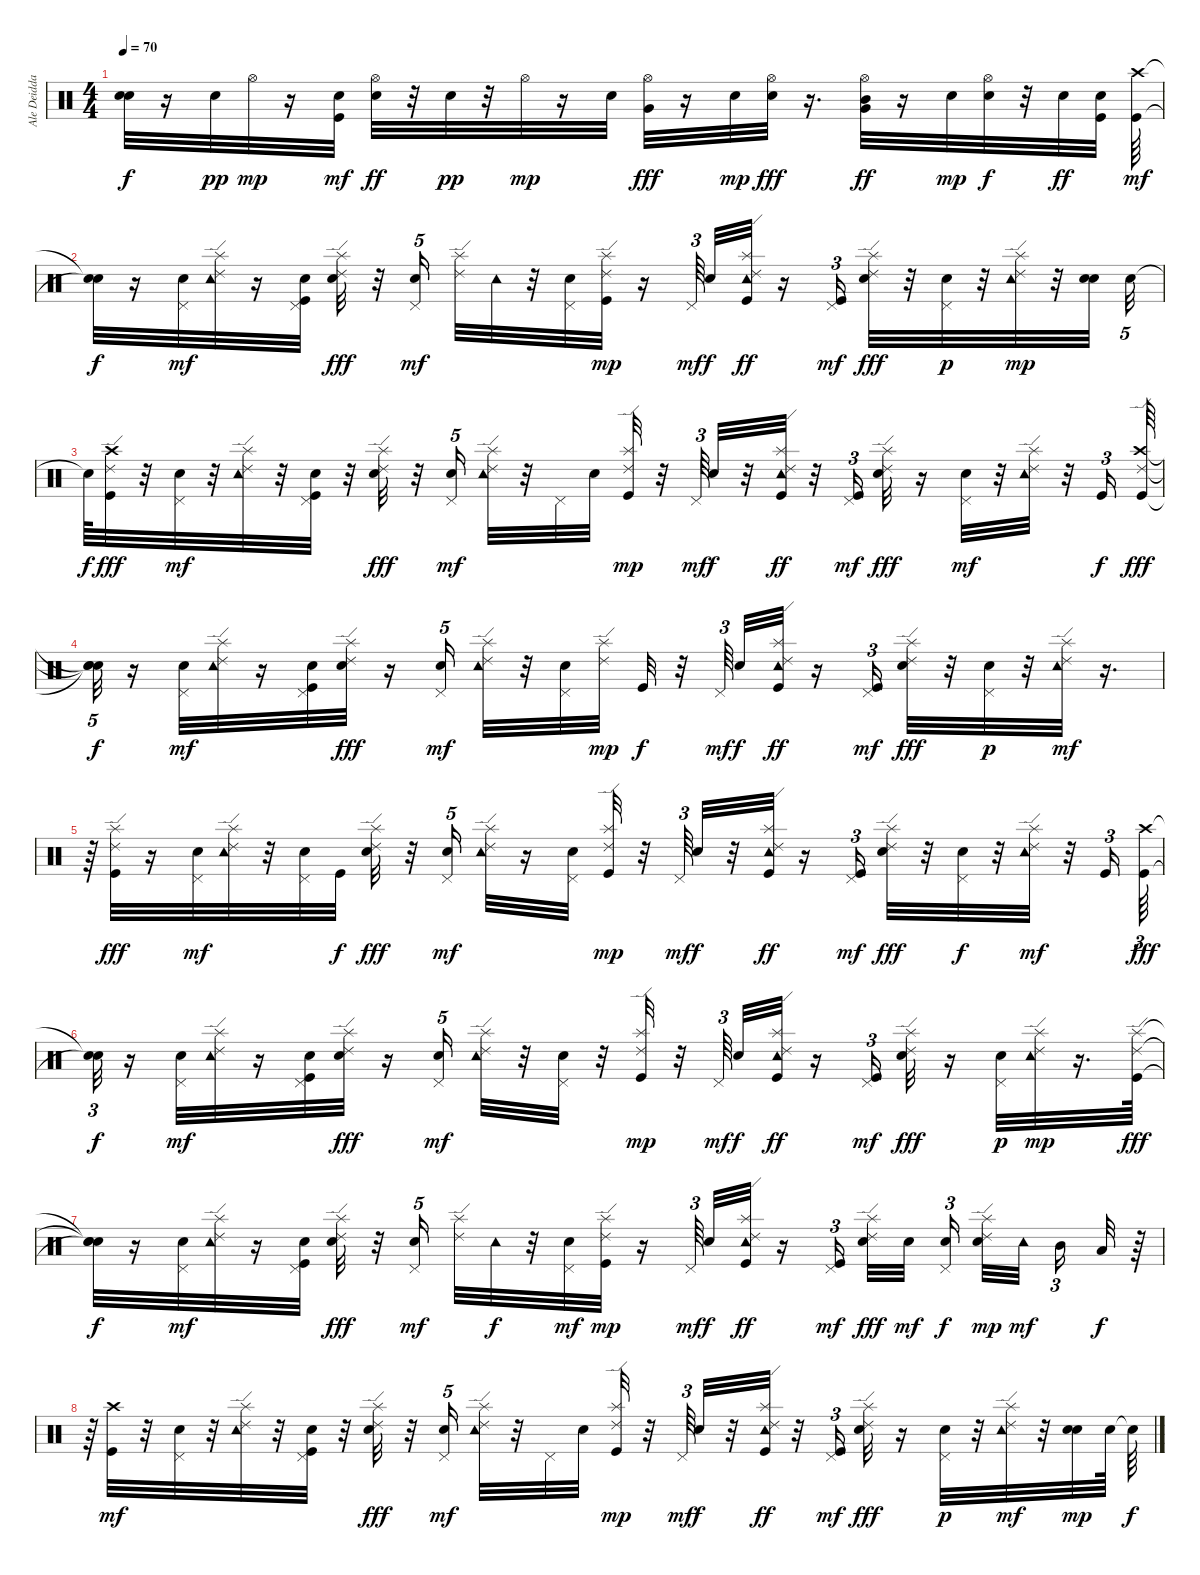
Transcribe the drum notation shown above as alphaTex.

\track ("Ale Deidda" "Ale Deidda") {instrument percussion}
\staff {score}
\articulation defaults
\ts (4 4)
\tempo 70
\clef neutral
\ks c
("Snare (hit)"{t} "Snare (hit)"{t}).32{dy f} r.16 "Snare (hit) 2".32{dy pp} "Hi-Hat (open)".32{dy mp} r.16 ("Snare (hit) 2" "Kick (hit)").32{dy mf} ("Electric Snare (hit)" "Hi-Hat (open)").32{dy ff} r.32 "Snare (hit) 2".32{dy pp} r.32 "Hi-Hat (open)".32{dy mp} r.16 "Snare (hit) 2".32 ("Hi-Hat (open)" "Very Low Tom (hit)").32{dy fff} r.16 "Electric Snare (hit)".32{dy mp} ("Hi-Hat (open)" "Electric Snare (hit)").32{dy fff} r.16{d} ("Mid Tom (hit)" "Very Low Tom (hit)" "Hi-Hat (open)").32{dy ff} r.16 "Electric Snare (hit)".32{dy mp} ("Hi-Hat (open)" "Electric Snare (hit)").32{dy f} r.32 "Electric Snare (hit)".32{dy ff} ("Electric Snare (hit)" "Kick (hit)").32 ("Kick (hit)" "Crash high (hit)").64{dy mf} |
("Snare (hit)"{t} "Snare (hit)"{t}).32{dy f} r.16 ("Snare (hit) 2" "Pedal Hi-Hat (hit)").32{dy mf} ("Splash (hit)" "Ride (edge) 2" "Tambourine (hit)").32 r.16 ("Snare (hit) 2" "Pedal Hi-Hat (hit)" "Kick (hit)").32 ("Splash (hit)" "Ride (edge) 2" "Electric Snare (hit)").32{dy fff} r.32 ("Snare (hit) 2" "Pedal Hi-Hat (hit)").16{tu (5 4) dy mf beam splitsecondary} ("Splash (hit)" "Ride (edge) 2").32 "Tambourine (hit)".32 r.32 ("Pedal Hi-Hat (hit)" "Snare (hit) 2").32 ("Splash (hit)" "Ride (edge) 2" "Kick (hit)").32{dy mp} r.16 "Pedal Hi-Hat (hit)".64{tu (3 2) dy mf beam splitsecondary} "Snare (hit) 2".32{dy f} ("Splash (hit)" "Ride (edge) 2" "Tambourine (hit)" "Kick (hit)").32{dy ff} r.16 ("Pedal Hi-Hat (hit)" "Kick (hit)").16{tu (3 2) dy mf} ("Electric Snare (hit)" "Splash (hit)" "Ride (edge) 2").32{dy fff} r.32 ("Snare (hit) 2" "Pedal Hi-Hat (hit)").32{dy p} r.32 ("Splash (hit)" "Ride (edge) 2" "Tambourine (hit)").32{dy mp} r.32 ("Electric Snare (hit)" "Electric Snare (hit)").32 "Electric Snare (hit)".32{tu (5 4)} |
"Snare (hit)"{t}.64{dy f} ("Kick (hit)" "Crash high (hit)" "Ride (edge) 2").32{dy fff} r.32 ("Snare (hit) 2" "Pedal Hi-Hat (hit)").32{dy mf} r.32 ("Splash (hit)" "Ride (edge) 2" "Tambourine (hit)").32 r.32 ("Snare (hit) 2" "Pedal Hi-Hat (hit)" "Kick (hit)").32 r.32 ("Splash (hit)" "Ride (edge) 2" "Electric Snare (hit)").32{dy fff} r.32 ("Snare (hit) 2" "Pedal Hi-Hat (hit)").16{tu (5 4) dy mf} ("Splash (hit)" "Ride (edge) 2" "Tambourine (hit)").32 r.32 "Pedal Hi-Hat (hit)".32 "Snare (hit) 2".32 ("Splash (hit)" "Ride (edge) 2" "Kick (hit)").32{dy mp} r.32 "Pedal Hi-Hat (hit)".64{tu (3 2) dy mf} "Snare (hit) 2".32{dy f} r.32 ("Splash (hit)" "Ride (edge) 2" "Tambourine (hit)" "Kick (hit)").32{dy ff} r.32 ("Pedal Hi-Hat (hit)" "Kick (hit)").16{tu (3 2) dy mf} ("Electric Snare (hit)" "Splash (hit)" "Ride (edge) 2").32{dy fff} r.16 ("Electric Snare (hit)" "Pedal Hi-Hat (hit)").32{dy mf} r.32 ("Splash (hit)" "Ride (edge) 2" "Tambourine (hit)").32 r.32 "Kick (hit)".16{tu (3 2) dy f} ("Kick (hit)" "Crash high (hit)" "Ride (edge) 2").64{dy fff} |
("Snare (hit)"{t} "Snare (hit)"{t} "Snare (hit)"{t}).32{tu (5 4) dy f} r.16 ("Snare (hit) 2" "Pedal Hi-Hat (hit)").32{dy mf} ("Splash (hit)" "Ride (edge) 2" "Tambourine (hit)").32 r.16 ("Snare (hit) 2" "Pedal Hi-Hat (hit)" "Kick (hit)").32 ("Splash (hit)" "Ride (edge) 2" "Electric Snare (hit)").32{dy fff} r.16 ("Snare (hit) 2" "Pedal Hi-Hat (hit)").16{tu (5 4) dy mf} ("Splash (hit)" "Ride (edge) 2" "Tambourine (hit)").32 r.32 ("Pedal Hi-Hat (hit)" "Snare (hit) 2").32 ("Splash (hit)" "Ride (edge) 2").32{dy mp} "Kick (hit)".32{dy f} r.32 "Pedal Hi-Hat (hit)".64{tu (3 2) dy mf beam splitsecondary} "Snare (hit) 2".32{dy f} ("Splash (hit)" "Ride (edge) 2" "Tambourine (hit)" "Kick (hit)").32{dy ff} r.16 ("Pedal Hi-Hat (hit)" "Kick (hit)").16{tu (3 2) dy mf} ("Electric Snare (hit)" "Splash (hit)" "Ride (edge) 2").32{dy fff} r.32 ("Snare (hit) 2" "Pedal Hi-Hat (hit)").32{dy p} r.32 ("Splash (hit)" "Ride (edge) 2" "Tambourine (hit)").32{dy mf} r.16{d} |
r.64 ("Kick (hit)" "Splash (hit)" "Ride (edge) 2").32{dy fff} r.16 ("Snare (hit) 2" "Pedal Hi-Hat (hit)").32{dy mf} ("Splash (hit)" "Ride (edge) 2" "Tambourine (hit)").32 r.32 ("Snare (hit) 2" "Pedal Hi-Hat (hit)").32 "Kick (hit)".32{dy f} ("Splash (hit)" "Ride (edge) 2" "Electric Snare (hit)").32{dy fff} r.32 ("Snare (hit) 2" "Pedal Hi-Hat (hit)").16{tu (5 4) dy mf} ("Splash (hit)" "Ride (edge) 2" "Tambourine (hit)").32 r.16 ("Pedal Hi-Hat (hit)" "Snare (hit) 2").32 ("Splash (hit)" "Ride (edge) 2" "Kick (hit)").32{dy mp} r.32 "Pedal Hi-Hat (hit)".64{tu (3 2) dy mf} "Snare (hit) 2".32{dy f} r.32 ("Splash (hit)" "Ride (edge) 2" "Tambourine (hit)" "Kick (hit)").32{dy ff} r.16 ("Pedal Hi-Hat (hit)" "Kick (hit)").16{tu (3 2) dy mf} ("Electric Snare (hit)" "Splash (hit)" "Ride (edge) 2").32{dy fff} r.32 ("Pedal Hi-Hat (hit)" "Electric Snare (hit)").32{dy f} r.32 ("Splash (hit)" "Ride (edge) 2" "Tambourine (hit)").32{dy mf} r.32 "Kick (hit)".16{tu (3 2)} ("Kick (hit)" "Crash high (hit)").64{tu (3 2) dy fff} |
("Snare (hit)"{t} "Snare (hit)"{t}).32{tu (3 2) dy f} r.16 ("Snare (hit) 2" "Pedal Hi-Hat (hit)").32{dy mf} ("Splash (hit)" "Ride (edge) 2" "Tambourine (hit)").32 r.16 ("Snare (hit) 2" "Pedal Hi-Hat (hit)" "Kick (hit)").32 ("Splash (hit)" "Ride (edge) 2" "Electric Snare (hit)").32{dy fff} r.16 ("Snare (hit) 2" "Pedal Hi-Hat (hit)").16{tu (5 4) dy mf} ("Splash (hit)" "Ride (edge) 2" "Tambourine (hit)").32 r.32 ("Pedal Hi-Hat (hit)" "Snare (hit) 2").32 r.32 ("Splash (hit)" "Ride (edge) 2" "Kick (hit)").32{dy mp} r.32 "Pedal Hi-Hat (hit)".64{tu (3 2) dy mf beam splitsecondary} "Snare (hit) 2".32{dy f} ("Splash (hit)" "Ride (edge) 2" "Tambourine (hit)" "Kick (hit)").32{dy ff} r.16 ("Pedal Hi-Hat (hit)" "Kick (hit)").16{tu (3 2) dy mf} ("Electric Snare (hit)" "Splash (hit)" "Ride (edge) 2").32{dy fff} r.16 ("Snare (hit) 2" "Pedal Hi-Hat (hit)").32{dy p} ("Splash (hit)" "Ride (edge) 2" "Tambourine (hit)").32{dy mp} r.16{d} ("Kick (hit)" "Splash (hit)" "Ride (edge) 2").64{dy fff} |
("Snare (hit)"{t} "Snare (hit)"{t} "Snare (hit)"{t}).32{dy f} r.16 ("Snare (hit) 2" "Pedal Hi-Hat (hit)").32{dy mf} ("Splash (hit)" "Ride (edge) 2" "Tambourine (hit)").32 r.16 ("Snare (hit) 2" "Pedal Hi-Hat (hit)" "Kick (hit)").32 ("Splash (hit)" "Ride (edge) 2" "Electric Snare (hit)").32{dy fff} r.32 ("Snare (hit) 2" "Pedal Hi-Hat (hit)").16{tu (5 4) dy mf beam splitsecondary} ("Splash (hit)" "Ride (edge) 2").32 "Tambourine (hit)".32{dy f} r.32 ("Pedal Hi-Hat (hit)" "Snare (hit) 2").32{dy mf} ("Splash (hit)" "Ride (edge) 2" "Kick (hit)").32{dy mp} r.16 "Pedal Hi-Hat (hit)".64{tu (3 2) dy mf beam splitsecondary} "Snare (hit) 2".32{dy f} ("Splash (hit)" "Ride (edge) 2" "Tambourine (hit)" "Kick (hit)").32{dy ff} r.16 ("Pedal Hi-Hat (hit)" "Kick (hit)").16{tu (3 2) dy mf} ("Splash (hit)" "Ride (edge) 2" "Electric Snare (hit)").32{dy fff} "Electric Snare (hit)".32{dy mf beam splitsecondary} ("Pedal Hi-Hat (hit)" "Electric Snare (hit)").16{tu (3 2) dy f beam splitsecondary} ("Electric Snare (hit)" "Splash (hit)" "Ride (edge) 2").32{dy mp} "Tambourine (hit)".32{dy mf beam splitsecondary} "Mid Tom (hit)".16{tu (3 2)} "Low Tom (hit)".32{dy f} r.64 |
r.64 ("Kick (hit)" "Crash high (hit)").32{dy mf} r.32 ("Snare (hit) 2" "Pedal Hi-Hat (hit)").32 r.32 ("Splash (hit)" "Ride (edge) 2" "Tambourine (hit)").32 r.32 ("Snare (hit) 2" "Pedal Hi-Hat (hit)" "Kick (hit)").32 r.32 ("Splash (hit)" "Ride (edge) 2" "Electric Snare (hit)").32{dy fff} r.32 ("Snare (hit) 2" "Pedal Hi-Hat (hit)").16{tu (5 4) dy mf} ("Splash (hit)" "Ride (edge) 2" "Tambourine (hit)").32 r.32 "Pedal Hi-Hat (hit)".32 "Snare (hit) 2".32 ("Splash (hit)" "Ride (edge) 2" "Kick (hit)").32{dy mp} r.32 "Pedal Hi-Hat (hit)".64{tu (3 2) dy mf} "Snare (hit) 2".32{dy f} r.32 ("Splash (hit)" "Ride (edge) 2" "Tambourine (hit)" "Kick (hit)").32{dy ff} r.32 ("Pedal Hi-Hat (hit)" "Kick (hit)").16{tu (3 2) dy mf} ("Electric Snare (hit)" "Splash (hit)" "Ride (edge) 2").32{dy fff} r.16 ("Snare (hit) 2" "Pedal Hi-Hat (hit)").32{dy p} r.32 ("Splash (hit)" "Ride (edge) 2" "Tambourine (hit)").32{dy mf} r.32 ("Electric Snare (hit)" "Electric Snare (hit)").32{dy mp} "Electric Snare (hit)".64 "Snare (hit)"{t}.64{dy f}
